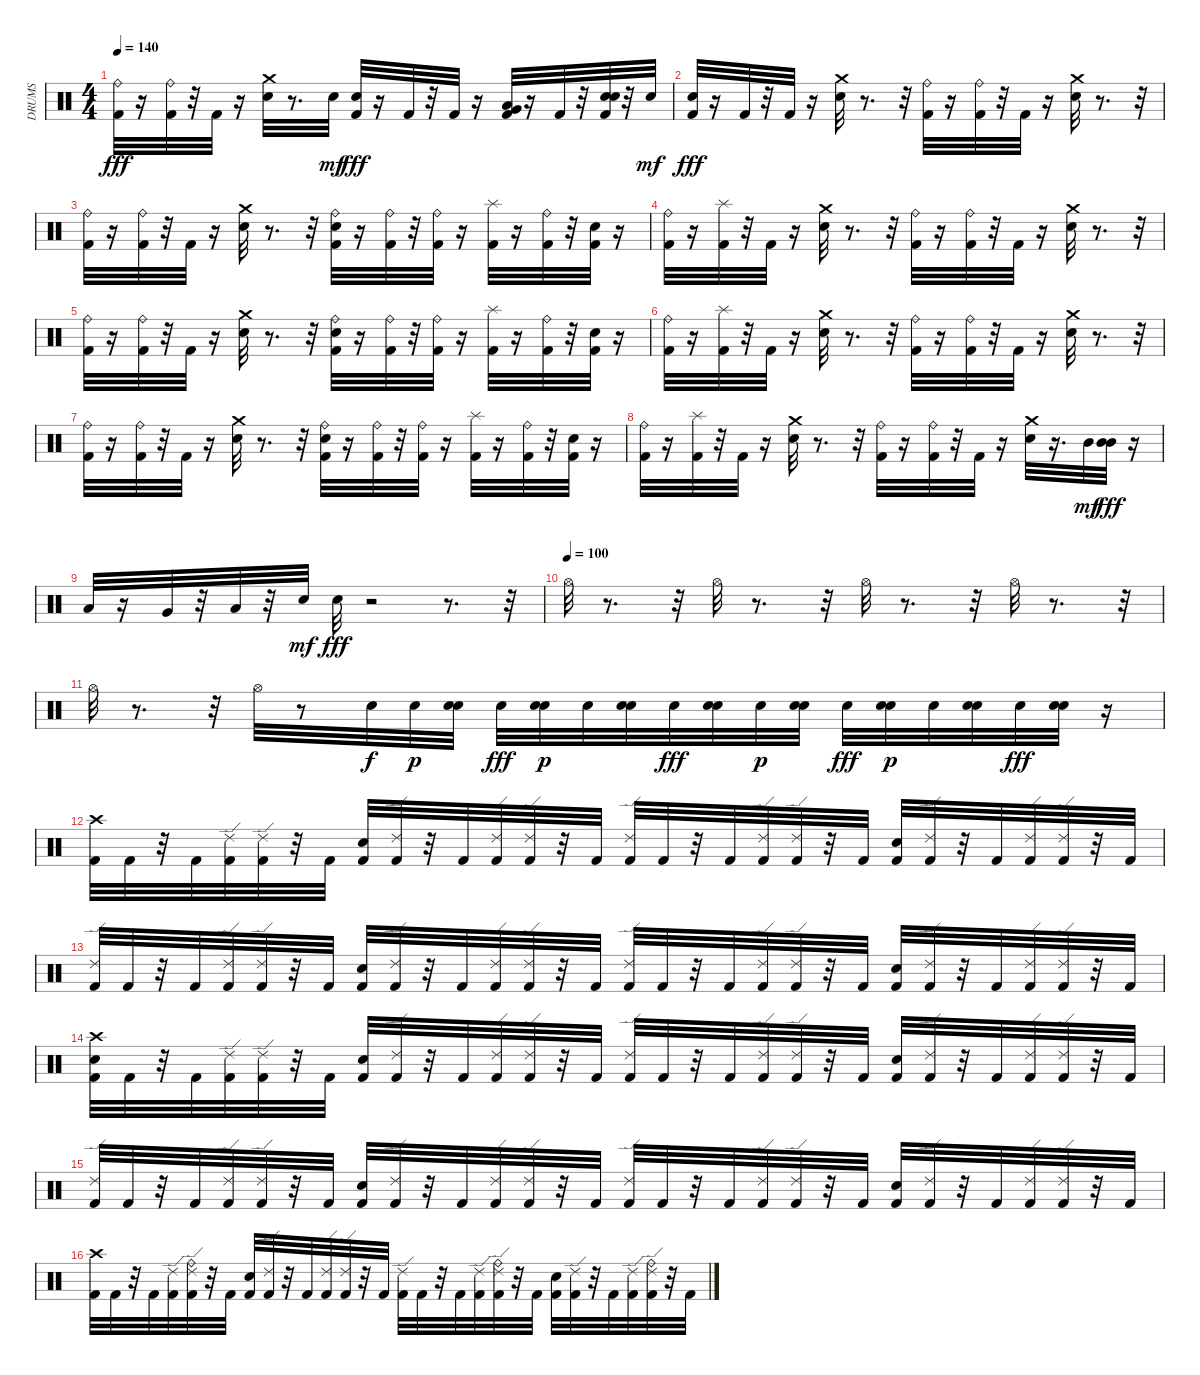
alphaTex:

\track ("DRUMS" "DRUMS") {instrument percussion}
\staff {score}
\articulation defaults
\ts (4 4)
\tempo 140
\clef neutral
\ks c
("Ride (bell)" "Kick (hit) 2").32{dy fff} r.16 ("Ride (bell)" "Kick (hit) 2").32 r.32 "Kick (hit) 2".32 r.16 ("Crash medium (hit)" "Electric Snare (hit)").32 r.8{d} "Electric Snare (hit)".32{dy mf} ("Electric Snare (hit)" "Kick (hit) 2").32{dy fff} r.16 "Kick (hit) 2".32 r.32 "Kick (hit) 2".32 r.16 ("Very Low Tom (hit)" "Low Floor Tom (hit)" "Kick (hit) 2").32 r.16 "Kick (hit) 2".32 r.32 ("Electric Snare (hit)" "Electric Snare (hit)" "Kick (hit) 2").32 r.32 "Electric Snare (hit)".32{dy mf} |
("Electric Snare (hit)" "Kick (hit) 2").32{dy fff} r.16 "Kick (hit) 2".32 r.32 "Kick (hit) 2".32 r.16 ("Crash medium (hit)" "Electric Snare (hit)").32 r.8{d} r.32 ("Ride (bell)" "Kick (hit) 2").32 r.16 ("Ride (bell)" "Kick (hit) 2").32 r.32 "Kick (hit) 2".32 r.16 ("Crash medium (hit)" "Electric Snare (hit)").32 r.8{d} r.32 |
("Ride (bell)" "Kick (hit) 2").32 r.16 ("Ride (bell)" "Kick (hit) 2").32 r.32 "Kick (hit) 2".32 r.16 ("Crash medium (hit)" "Electric Snare (hit)").32 r.8{d} r.32 ("Ride (bell)" "Electric Snare (hit)" "Kick (hit) 2").32 r.16 ("Ride (bell)" "Kick (hit) 2").32 r.32 ("Ride (bell)" "Kick (hit) 2").32 r.16 ("Splash (hit)" "Kick (hit) 2").32 r.16 ("Ride (bell)" "Kick (hit) 2").32 r.32 ("Electric Snare (hit)" "Kick (hit) 2").32 r.16 |
("Ride (bell)" "Kick (hit) 2").32 r.16 ("Splash (hit)" "Kick (hit) 2").32 r.32 "Kick (hit) 2".32 r.16 ("Crash medium (hit)" "Electric Snare (hit)").32 r.8{d} r.32 ("Ride (bell)" "Kick (hit) 2").32 r.16 ("Ride (bell)" "Kick (hit) 2").32 r.32 "Kick (hit) 2".32 r.16 ("Crash medium (hit)" "Electric Snare (hit)").32 r.8{d} r.32 |
("Ride (bell)" "Kick (hit) 2").32 r.16 ("Ride (bell)" "Kick (hit) 2").32 r.32 "Kick (hit) 2".32 r.16 ("Crash medium (hit)" "Electric Snare (hit)").32 r.8{d} r.32 ("Ride (bell)" "Electric Snare (hit)" "Kick (hit) 2").32 r.16 ("Ride (bell)" "Kick (hit) 2").32 r.32 ("Ride (bell)" "Kick (hit) 2").32 r.16 ("Splash (hit)" "Kick (hit) 2").32 r.16 ("Ride (bell)" "Kick (hit) 2").32 r.32 ("Electric Snare (hit)" "Kick (hit) 2").32 r.16 |
("Ride (bell)" "Kick (hit) 2").32 r.16 ("Splash (hit)" "Kick (hit) 2").32 r.32 "Kick (hit) 2".32 r.16 ("Crash medium (hit)" "Electric Snare (hit)").32 r.8{d} r.32 ("Ride (bell)" "Kick (hit) 2").32 r.16 ("Ride (bell)" "Kick (hit) 2").32 r.32 "Kick (hit) 2".32 r.16 ("Crash medium (hit)" "Electric Snare (hit)").32 r.8{d} r.32 |
("Ride (bell)" "Kick (hit) 2").32 r.16 ("Ride (bell)" "Kick (hit) 2").32 r.32 "Kick (hit) 2".32 r.16 ("Crash medium (hit)" "Electric Snare (hit)").32 r.8{d} r.32 ("Ride (bell)" "Electric Snare (hit)" "Kick (hit) 2").32 r.16 ("Ride (bell)" "Kick (hit) 2").32 r.32 ("Ride (bell)" "Kick (hit) 2").32 r.16 ("Splash (hit)" "Kick (hit) 2").32 r.16 ("Ride (bell)" "Kick (hit) 2").32 r.32 ("Electric Snare (hit)" "Kick (hit) 2").32 r.16 |
("Ride (bell)" "Kick (hit) 2").32 r.16 ("Splash (hit)" "Kick (hit) 2").32 r.32 "Kick (hit) 2".32 r.16 ("Crash medium (hit)" "Electric Snare (hit)").32 r.8{d} r.32 ("Ride (bell)" "Kick (hit) 2").32 r.16 ("Ride (bell)" "Kick (hit) 2").32 r.32 "Kick (hit) 2".32 r.16 ("Crash medium (hit)" "Electric Snare (hit)").32 r.16{d} "Mid Tom (hit)".32{dy mf} ("Mid Tom (hit)" "Mid Tom (hit)").32{dy fff} r.16 |
"Low Tom (hit)".32 r.16 "Very Low Tom (hit)".32 r.32 "Low Floor Tom (hit)".32 r.32 "Electric Snare (hit)".32{dy mf} "Electric Snare (hit)".32{dy fff} r.2 r.8{d} r.32 |
\tempo (100)
"Hi-Hat (open)".32 r.8{d} r.32 "Hi-Hat (open)".32 r.8{d} r.32 "Hi-Hat (open)".32 r.8{d} r.32 "Hi-Hat (open)".32 r.8{d} r.32 |
"Hi-Hat (open)".32 r.8{d} r.32 "Hi-Hat (open)".32 r.8 "Electric Snare (hit)".32{dy f} "Electric Snare (hit)".32{dy p} ("Electric Snare (hit)" "Electric Snare (hit)").32 "Electric Snare (hit)".32{dy fff} ("Electric Snare (hit)" "Electric Snare (hit)").32{dy p} "Electric Snare (hit)".32 ("Electric Snare (hit)" "Electric Snare (hit)").32 "Electric Snare (hit)".32{dy fff} ("Electric Snare (hit)" "Electric Snare (hit)").32 "Electric Snare (hit)".32{dy p} ("Electric Snare (hit)" "Electric Snare (hit)").32 "Electric Snare (hit)".32{dy fff} ("Electric Snare (hit)" "Electric Snare (hit)").32{dy p} "Electric Snare (hit)".32 ("Electric Snare (hit)" "Electric Snare (hit)").32 "Electric Snare (hit)".32{dy fff} ("Electric Snare (hit)" "Electric Snare (hit)").32 r.16 |
("Crash high (hit)" "Kick (hit) 2").32 "Kick (hit) 2".32 r.32 "Kick (hit) 2".32 ("Ride (edge) 2" "Kick (hit) 2").32 ("Ride (edge) 2" "Kick (hit) 2").32 r.32 "Kick (hit) 2".32 ("Electric Snare (hit)" "Kick (hit) 2").32 ("Ride (edge) 2" "Kick (hit) 2").32 r.32 "Kick (hit) 2".32 ("Ride (edge) 2" "Kick (hit) 2").32 ("Ride (edge) 2" "Kick (hit) 2").32 r.32 "Kick (hit) 2".32 ("Ride (edge) 2" "Kick (hit) 2").32 "Kick (hit) 2".32 r.32 "Kick (hit) 2".32 ("Ride (edge) 2" "Kick (hit) 2").32 ("Ride (edge) 2" "Kick (hit) 2").32 r.32 "Kick (hit) 2".32 ("Electric Snare (hit)" "Kick (hit) 2").32 ("Ride (edge) 2" "Kick (hit) 2").32 r.32 "Kick (hit) 2".32 ("Ride (edge) 2" "Kick (hit) 2").32 ("Ride (edge) 2" "Kick (hit) 2").32 r.32 "Kick (hit) 2".32 |
("Ride (edge) 2" "Kick (hit) 2").32 "Kick (hit) 2".32 r.32 "Kick (hit) 2".32 ("Ride (edge) 2" "Kick (hit) 2").32 ("Ride (edge) 2" "Kick (hit) 2").32 r.32 "Kick (hit) 2".32 ("Electric Snare (hit)" "Kick (hit) 2").32 ("Ride (edge) 2" "Kick (hit) 2").32 r.32 "Kick (hit) 2".32 ("Ride (edge) 2" "Kick (hit) 2").32 ("Ride (edge) 2" "Kick (hit) 2").32 r.32 "Kick (hit) 2".32 ("Ride (edge) 2" "Kick (hit) 2").32 "Kick (hit) 2".32 r.32 "Kick (hit) 2".32 ("Ride (edge) 2" "Kick (hit) 2").32 ("Ride (edge) 2" "Kick (hit) 2").32 r.32 "Kick (hit) 2".32 ("Electric Snare (hit)" "Kick (hit) 2").32 ("Ride (edge) 2" "Kick (hit) 2").32 r.32 "Kick (hit) 2".32 ("Ride (edge) 2" "Kick (hit) 2").32 ("Ride (edge) 2" "Kick (hit) 2").32 r.32 "Kick (hit) 2".32 |
("Crash high (hit)" "Electric Snare (hit)" "Kick (hit) 2").32 "Kick (hit) 2".32 r.32 "Kick (hit) 2".32 ("Ride (edge) 2" "Kick (hit) 2").32 ("Ride (edge) 2" "Kick (hit) 2").32 r.32 "Kick (hit) 2".32 ("Electric Snare (hit)" "Kick (hit) 2").32 ("Ride (edge) 2" "Kick (hit) 2").32 r.32 "Kick (hit) 2".32 ("Ride (edge) 2" "Kick (hit) 2").32 ("Ride (edge) 2" "Kick (hit) 2").32 r.32 "Kick (hit) 2".32 ("Ride (edge) 2" "Kick (hit) 2").32 "Kick (hit) 2".32 r.32 "Kick (hit) 2".32 ("Ride (edge) 2" "Kick (hit) 2").32 ("Ride (edge) 2" "Kick (hit) 2").32 r.32 "Kick (hit) 2".32 ("Electric Snare (hit)" "Kick (hit) 2").32 ("Ride (edge) 2" "Kick (hit) 2").32 r.32 "Kick (hit) 2".32 ("Ride (edge) 2" "Kick (hit) 2").32 ("Ride (edge) 2" "Kick (hit) 2").32 r.32 "Kick (hit) 2".32 |
("Ride (edge) 2" "Kick (hit) 2").32 "Kick (hit) 2".32 r.32 "Kick (hit) 2".32 ("Ride (edge) 2" "Kick (hit) 2").32 ("Ride (edge) 2" "Kick (hit) 2").32 r.32 "Kick (hit) 2".32 ("Electric Snare (hit)" "Kick (hit) 2").32 ("Ride (edge) 2" "Kick (hit) 2").32 r.32 "Kick (hit) 2".32 ("Ride (edge) 2" "Kick (hit) 2").32 ("Ride (edge) 2" "Kick (hit) 2").32 r.32 "Kick (hit) 2".32 ("Ride (edge) 2" "Kick (hit) 2").32 "Kick (hit) 2".32 r.32 "Kick (hit) 2".32 ("Ride (edge) 2" "Kick (hit) 2").32 ("Ride (edge) 2" "Kick (hit) 2").32 r.32 "Kick (hit) 2".32 ("Electric Snare (hit)" "Kick (hit) 2").32 ("Ride (edge) 2" "Kick (hit) 2").32 r.32 "Kick (hit) 2".32 ("Ride (edge) 2" "Kick (hit) 2").32 ("Ride (edge) 2" "Kick (hit) 2").32 r.32 "Kick (hit) 2".32 |
("Crash high (hit)" "Kick (hit) 2").32 "Kick (hit) 2".32 r.32 "Kick (hit) 2".32 ("Ride (edge) 2" "Kick (hit) 2").32 ("Ride (bell)" "Ride (edge) 2" "Kick (hit) 2").32 r.32 "Kick (hit) 2".32 ("Electric Snare (hit)" "Kick (hit) 2").32 ("Ride (edge) 2" "Kick (hit) 2").32 r.32 "Kick (hit) 2".32 ("Ride (edge) 2" "Kick (hit) 2").32 ("Ride (edge) 2" "Kick (hit) 2").32 r.32 "Kick (hit) 2".32 ("Ride (edge) 2" "Kick (hit) 2").32 "Kick (hit) 2".32 r.32 "Kick (hit) 2".32 ("Ride (edge) 2" "Kick (hit) 2").32 ("Ride (bell)" "Ride (edge) 2" "Kick (hit) 2").32 r.32 "Kick (hit) 2".32 ("Electric Snare (hit)" "Kick (hit) 2").32 ("Ride (edge) 2" "Kick (hit) 2").32 r.32 "Kick (hit) 2".32 ("Ride (edge) 2" "Kick (hit) 2").32 ("Ride (edge) 2" "Ride (bell)" "Kick (hit) 2").32 r.32 "Kick (hit) 2".32
